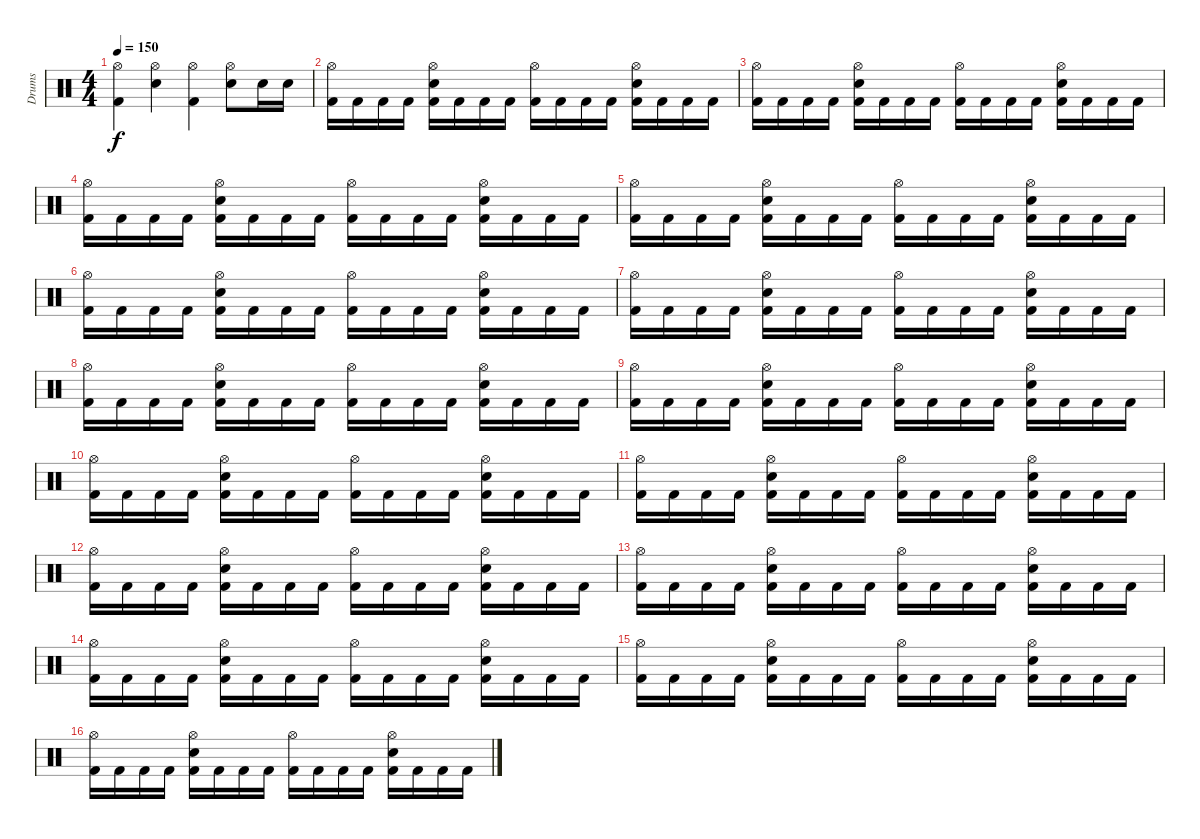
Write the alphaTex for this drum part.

\track ("Drums" "Drums") {instrument percussion}
\staff {score}
\articulation defaults
\ts (4 4)
\tempo 150
\clef neutral
\ks c
("Hi-Hat (open)" "Kick (hit) 2").4{dy f} ("Hi-Hat (open)" "Snare (hit) 2").4 ("Hi-Hat (open)" "Kick (hit) 2").4 ("Hi-Hat (open)" "Snare (hit) 2").8 "Snare (hit) 2".16 "Snare (hit) 2".16 |
("Hi-Hat (open)" "Kick (hit) 2").16 "Kick (hit) 2".16 "Kick (hit) 2".16 "Kick (hit) 2".16 ("Snare (hit) 2" "Hi-Hat (open)" "Kick (hit) 2").16 "Kick (hit) 2".16 "Kick (hit) 2".16 "Kick (hit) 2".16 ("Hi-Hat (open)" "Kick (hit) 2").16 "Kick (hit) 2".16 "Kick (hit) 2".16 "Kick (hit) 2".16 ("Snare (hit) 2" "Hi-Hat (open)" "Kick (hit) 2").16 "Kick (hit) 2".16 "Kick (hit) 2".16 "Kick (hit) 2".16 |
("Hi-Hat (open)" "Kick (hit) 2").16 "Kick (hit) 2".16 "Kick (hit) 2".16 "Kick (hit) 2".16 ("Snare (hit) 2" "Hi-Hat (open)" "Kick (hit) 2").16 "Kick (hit) 2".16 "Kick (hit) 2".16 "Kick (hit) 2".16 ("Hi-Hat (open)" "Kick (hit) 2").16 "Kick (hit) 2".16 "Kick (hit) 2".16 "Kick (hit) 2".16 ("Snare (hit) 2" "Hi-Hat (open)" "Kick (hit) 2").16 "Kick (hit) 2".16 "Kick (hit) 2".16 "Kick (hit) 2".16 |
("Hi-Hat (open)" "Kick (hit) 2").16 "Kick (hit) 2".16 "Kick (hit) 2".16 "Kick (hit) 2".16 ("Snare (hit) 2" "Hi-Hat (open)" "Kick (hit) 2").16 "Kick (hit) 2".16 "Kick (hit) 2".16 "Kick (hit) 2".16 ("Hi-Hat (open)" "Kick (hit) 2").16 "Kick (hit) 2".16 "Kick (hit) 2".16 "Kick (hit) 2".16 ("Snare (hit) 2" "Hi-Hat (open)" "Kick (hit) 2").16 "Kick (hit) 2".16 "Kick (hit) 2".16 "Kick (hit) 2".16 |
("Hi-Hat (open)" "Kick (hit) 2").16 "Kick (hit) 2".16 "Kick (hit) 2".16 "Kick (hit) 2".16 ("Snare (hit) 2" "Hi-Hat (open)" "Kick (hit) 2").16 "Kick (hit) 2".16 "Kick (hit) 2".16 "Kick (hit) 2".16 ("Hi-Hat (open)" "Kick (hit) 2").16 "Kick (hit) 2".16 "Kick (hit) 2".16 "Kick (hit) 2".16 ("Snare (hit) 2" "Hi-Hat (open)" "Kick (hit) 2").16 "Kick (hit) 2".16 "Kick (hit) 2".16 "Kick (hit) 2".16 |
("Hi-Hat (open)" "Kick (hit) 2").16 "Kick (hit) 2".16 "Kick (hit) 2".16 "Kick (hit) 2".16 ("Snare (hit) 2" "Hi-Hat (open)" "Kick (hit) 2").16 "Kick (hit) 2".16 "Kick (hit) 2".16 "Kick (hit) 2".16 ("Hi-Hat (open)" "Kick (hit) 2").16 "Kick (hit) 2".16 "Kick (hit) 2".16 "Kick (hit) 2".16 ("Snare (hit) 2" "Hi-Hat (open)" "Kick (hit) 2").16 "Kick (hit) 2".16 "Kick (hit) 2".16 "Kick (hit) 2".16 |
("Hi-Hat (open)" "Kick (hit) 2").16 "Kick (hit) 2".16 "Kick (hit) 2".16 "Kick (hit) 2".16 ("Snare (hit) 2" "Hi-Hat (open)" "Kick (hit) 2").16 "Kick (hit) 2".16 "Kick (hit) 2".16 "Kick (hit) 2".16 ("Hi-Hat (open)" "Kick (hit) 2").16 "Kick (hit) 2".16 "Kick (hit) 2".16 "Kick (hit) 2".16 ("Snare (hit) 2" "Hi-Hat (open)" "Kick (hit) 2").16 "Kick (hit) 2".16 "Kick (hit) 2".16 "Kick (hit) 2".16 |
("Hi-Hat (open)" "Kick (hit) 2").16 "Kick (hit) 2".16 "Kick (hit) 2".16 "Kick (hit) 2".16 ("Snare (hit) 2" "Hi-Hat (open)" "Kick (hit) 2").16 "Kick (hit) 2".16 "Kick (hit) 2".16 "Kick (hit) 2".16 ("Hi-Hat (open)" "Kick (hit) 2").16 "Kick (hit) 2".16 "Kick (hit) 2".16 "Kick (hit) 2".16 ("Snare (hit) 2" "Hi-Hat (open)" "Kick (hit) 2").16 "Kick (hit) 2".16 "Kick (hit) 2".16 "Kick (hit) 2".16 |
("Hi-Hat (open)" "Kick (hit) 2").16 "Kick (hit) 2".16 "Kick (hit) 2".16 "Kick (hit) 2".16 ("Snare (hit) 2" "Hi-Hat (open)" "Kick (hit) 2").16 "Kick (hit) 2".16 "Kick (hit) 2".16 "Kick (hit) 2".16 ("Hi-Hat (open)" "Kick (hit) 2").16 "Kick (hit) 2".16 "Kick (hit) 2".16 "Kick (hit) 2".16 ("Snare (hit) 2" "Hi-Hat (open)" "Kick (hit) 2").16 "Kick (hit) 2".16 "Kick (hit) 2".16 "Kick (hit) 2".16 |
("Hi-Hat (open)" "Kick (hit) 2").16 "Kick (hit) 2".16 "Kick (hit) 2".16 "Kick (hit) 2".16 ("Snare (hit) 2" "Hi-Hat (open)" "Kick (hit) 2").16 "Kick (hit) 2".16 "Kick (hit) 2".16 "Kick (hit) 2".16 ("Hi-Hat (open)" "Kick (hit) 2").16 "Kick (hit) 2".16 "Kick (hit) 2".16 "Kick (hit) 2".16 ("Snare (hit) 2" "Hi-Hat (open)" "Kick (hit) 2").16 "Kick (hit) 2".16 "Kick (hit) 2".16 "Kick (hit) 2".16 |
("Hi-Hat (open)" "Kick (hit) 2").16 "Kick (hit) 2".16 "Kick (hit) 2".16 "Kick (hit) 2".16 ("Snare (hit) 2" "Hi-Hat (open)" "Kick (hit) 2").16 "Kick (hit) 2".16 "Kick (hit) 2".16 "Kick (hit) 2".16 ("Hi-Hat (open)" "Kick (hit) 2").16 "Kick (hit) 2".16 "Kick (hit) 2".16 "Kick (hit) 2".16 ("Snare (hit) 2" "Hi-Hat (open)" "Kick (hit) 2").16 "Kick (hit) 2".16 "Kick (hit) 2".16 "Kick (hit) 2".16 |
("Hi-Hat (open)" "Kick (hit) 2").16 "Kick (hit) 2".16 "Kick (hit) 2".16 "Kick (hit) 2".16 ("Snare (hit) 2" "Hi-Hat (open)" "Kick (hit) 2").16 "Kick (hit) 2".16 "Kick (hit) 2".16 "Kick (hit) 2".16 ("Hi-Hat (open)" "Kick (hit) 2").16 "Kick (hit) 2".16 "Kick (hit) 2".16 "Kick (hit) 2".16 ("Snare (hit) 2" "Hi-Hat (open)" "Kick (hit) 2").16 "Kick (hit) 2".16 "Kick (hit) 2".16 "Kick (hit) 2".16 |
("Hi-Hat (open)" "Kick (hit) 2").16 "Kick (hit) 2".16 "Kick (hit) 2".16 "Kick (hit) 2".16 ("Snare (hit) 2" "Hi-Hat (open)" "Kick (hit) 2").16 "Kick (hit) 2".16 "Kick (hit) 2".16 "Kick (hit) 2".16 ("Hi-Hat (open)" "Kick (hit) 2").16 "Kick (hit) 2".16 "Kick (hit) 2".16 "Kick (hit) 2".16 ("Snare (hit) 2" "Hi-Hat (open)" "Kick (hit) 2").16 "Kick (hit) 2".16 "Kick (hit) 2".16 "Kick (hit) 2".16 |
("Hi-Hat (open)" "Kick (hit) 2").16 "Kick (hit) 2".16 "Kick (hit) 2".16 "Kick (hit) 2".16 ("Snare (hit) 2" "Hi-Hat (open)" "Kick (hit) 2").16 "Kick (hit) 2".16 "Kick (hit) 2".16 "Kick (hit) 2".16 ("Hi-Hat (open)" "Kick (hit) 2").16 "Kick (hit) 2".16 "Kick (hit) 2".16 "Kick (hit) 2".16 ("Snare (hit) 2" "Hi-Hat (open)" "Kick (hit) 2").16 "Kick (hit) 2".16 "Kick (hit) 2".16 "Kick (hit) 2".16 |
("Hi-Hat (open)" "Kick (hit) 2").16 "Kick (hit) 2".16 "Kick (hit) 2".16 "Kick (hit) 2".16 ("Snare (hit) 2" "Hi-Hat (open)" "Kick (hit) 2").16 "Kick (hit) 2".16 "Kick (hit) 2".16 "Kick (hit) 2".16 ("Hi-Hat (open)" "Kick (hit) 2").16 "Kick (hit) 2".16 "Kick (hit) 2".16 "Kick (hit) 2".16 ("Snare (hit) 2" "Hi-Hat (open)" "Kick (hit) 2").16 "Kick (hit) 2".16 "Kick (hit) 2".16 "Kick (hit) 2".16 |
("Hi-Hat (open)" "Kick (hit) 2").16 "Kick (hit) 2".16 "Kick (hit) 2".16 "Kick (hit) 2".16 ("Snare (hit) 2" "Hi-Hat (open)" "Kick (hit) 2").16 "Kick (hit) 2".16 "Kick (hit) 2".16 "Kick (hit) 2".16 ("Hi-Hat (open)" "Kick (hit) 2").16 "Kick (hit) 2".16 "Kick (hit) 2".16 "Kick (hit) 2".16 ("Snare (hit) 2" "Hi-Hat (open)" "Kick (hit) 2").16 "Kick (hit) 2".16 "Kick (hit) 2".16 "Kick (hit) 2".16
